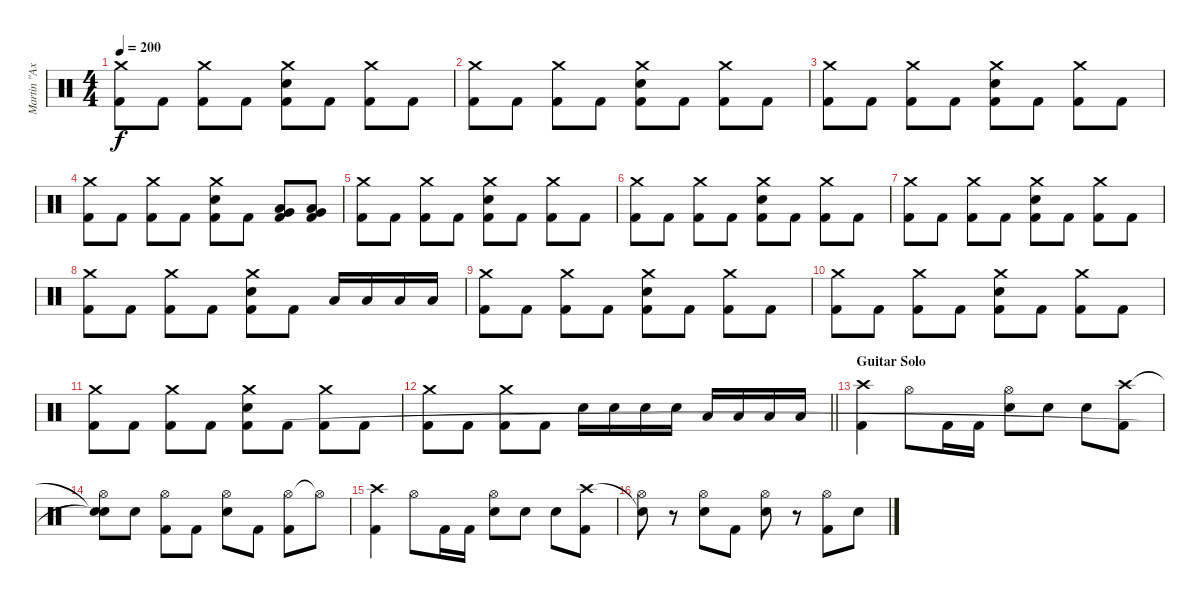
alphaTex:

\track ("Martin \"Axe\" Axenrot" "Martin \"Ax") {instrument percussion}
\staff {score}
\articulation defaults
\ts (4 4)
\tempo 200
\clef neutral
\ks c
("Crash medium (hit)" "Kick (hit) 2").8{dy f} "Kick (hit) 2".8 ("Crash medium (hit)" "Kick (hit) 2").8 "Kick (hit) 2".8 ("Crash medium (hit)" "Electric Snare (hit)" "Kick (hit) 2").8 "Kick (hit) 2".8 ("Crash medium (hit)" "Kick (hit) 2").8 "Kick (hit) 2".8 |
("Crash medium (hit)" "Kick (hit) 2").8 "Kick (hit) 2".8 ("Crash medium (hit)" "Kick (hit) 2").8 "Kick (hit) 2".8 ("Crash medium (hit)" "Electric Snare (hit)" "Kick (hit) 2").8 "Kick (hit) 2".8 ("Crash medium (hit)" "Kick (hit) 2").8 "Kick (hit) 2".8 |
("Crash medium (hit)" "Kick (hit) 2").8 "Kick (hit) 2".8 ("Crash medium (hit)" "Kick (hit) 2").8 "Kick (hit) 2".8 ("Crash medium (hit)" "Electric Snare (hit)" "Kick (hit) 2").8 "Kick (hit) 2".8 ("Crash medium (hit)" "Kick (hit) 2").8 "Kick (hit) 2".8 |
("Crash medium (hit)" "Kick (hit) 2").8 "Kick (hit) 2".8 ("Crash medium (hit)" "Kick (hit) 2").8 "Kick (hit) 2".8 ("Crash medium (hit)" "Electric Snare (hit)" "Kick (hit) 2").8 "Kick (hit) 2".8 ("Very Low Tom (hit)" "Low Floor Tom (hit)" "Kick (hit) 2").8 ("Very Low Tom (hit)" "Low Floor Tom (hit)" "Kick (hit) 2").8 |
("Crash medium (hit)" "Kick (hit) 2").8 "Kick (hit) 2".8 ("Crash medium (hit)" "Kick (hit) 2").8 "Kick (hit) 2".8 ("Crash medium (hit)" "Electric Snare (hit)" "Kick (hit) 2").8 "Kick (hit) 2".8 ("Crash medium (hit)" "Kick (hit) 2").8 "Kick (hit) 2".8 |
("Crash medium (hit)" "Kick (hit) 2").8 "Kick (hit) 2".8 ("Crash medium (hit)" "Kick (hit) 2").8 "Kick (hit) 2".8 ("Crash medium (hit)" "Electric Snare (hit)" "Kick (hit) 2").8 "Kick (hit) 2".8 ("Crash medium (hit)" "Kick (hit) 2").8 "Kick (hit) 2".8 |
("Crash medium (hit)" "Kick (hit) 2").8 "Kick (hit) 2".8 ("Crash medium (hit)" "Kick (hit) 2").8 "Kick (hit) 2".8 ("Crash medium (hit)" "Electric Snare (hit)" "Kick (hit) 2").8 "Kick (hit) 2".8 ("Crash medium (hit)" "Kick (hit) 2").8 "Kick (hit) 2".8 |
("Crash medium (hit)" "Kick (hit) 2").8 "Kick (hit) 2".8 ("Crash medium (hit)" "Kick (hit) 2").8 "Kick (hit) 2".8 ("Crash medium (hit)" "Electric Snare (hit)" "Kick (hit) 2").8 "Kick (hit) 2".8 "Low Tom (hit)".16 "Low Tom (hit)".16 "Low Tom (hit)".16 "Low Tom (hit)".16 |
("Crash medium (hit)" "Kick (hit) 2").8 "Kick (hit) 2".8 ("Crash medium (hit)" "Kick (hit) 2").8 "Kick (hit) 2".8 ("Crash medium (hit)" "Electric Snare (hit)" "Kick (hit) 2").8 "Kick (hit) 2".8 ("Crash medium (hit)" "Kick (hit) 2").8 "Kick (hit) 2".8 |
("Crash medium (hit)" "Kick (hit) 2").8 "Kick (hit) 2".8 ("Crash medium (hit)" "Kick (hit) 2").8 "Kick (hit) 2".8 ("Crash medium (hit)" "Electric Snare (hit)" "Kick (hit) 2").8 "Kick (hit) 2".8 ("Crash medium (hit)" "Kick (hit) 2").8 "Kick (hit) 2".8 |
("Crash medium (hit)" "Kick (hit) 2").8 "Kick (hit) 2".8 ("Crash medium (hit)" "Kick (hit) 2").8 "Kick (hit) 2".8 ("Crash medium (hit)" "Electric Snare (hit)" "Kick (hit) 2").8 "Kick (hit) 2".8 ("Crash medium (hit)" "Kick (hit) 2").8 "Kick (hit) 2".8 |
\barLineRight lightlight
("Crash medium (hit)" "Kick (hit) 2").8 "Kick (hit) 2".8 ("Crash medium (hit)" "Kick (hit) 2").8 "Kick (hit) 2".8 "Electric Snare (hit)".16 "Electric Snare (hit)".16 "Electric Snare (hit)".16 "Electric Snare (hit)".16 "Low Tom (hit)".16 "Low Tom (hit)".16 "Low Tom (hit)".16 "Low Tom (hit)".16 |
\section ("" "Guitar Solo")
("Crash high (hit)" "Kick (hit) 2").4 "Hi-Hat (open)".8 "Kick (hit) 2".16 "Kick (hit) 2".16 ("Hi-Hat (open)" "Electric Snare (hit)").8 "Electric Snare (hit)".8 "Electric Snare (hit)".8 ("Crash high (hit)" "Kick (hit) 2").8 |
("Snare (hit)"{t} "Hi-Hat (open)" "Snare (hit)"{t}).8 "Electric Snare (hit)".8 ("Hi-Hat (open)" "Kick (hit) 2").8 "Kick (hit) 2".8 ("Hi-Hat (open)" "Electric Snare (hit)").8 "Kick (hit) 2".8 ("Hi-Hat (open)" "Kick (hit) 2").8 "Hi-Hat (open)"{t}.8 |
("Crash high (hit)" "Kick (hit) 2").4 "Hi-Hat (open)".8 "Kick (hit) 2".16 "Kick (hit) 2".16 ("Hi-Hat (open)" "Electric Snare (hit)").8 "Electric Snare (hit)".8 "Electric Snare (hit)".8 ("Crash high (hit)" "Kick (hit) 2").8 |
("Snare (hit)"{t} "Hi-Hat (open)").8 r.8 ("Hi-Hat (open)" "Electric Snare (hit)").8 "Kick (hit) 2".8 ("Hi-Hat (open)" "Electric Snare (hit)").8 r.8 ("Hi-Hat (open)" "Kick (hit) 2").8 "Electric Snare (hit)".8
